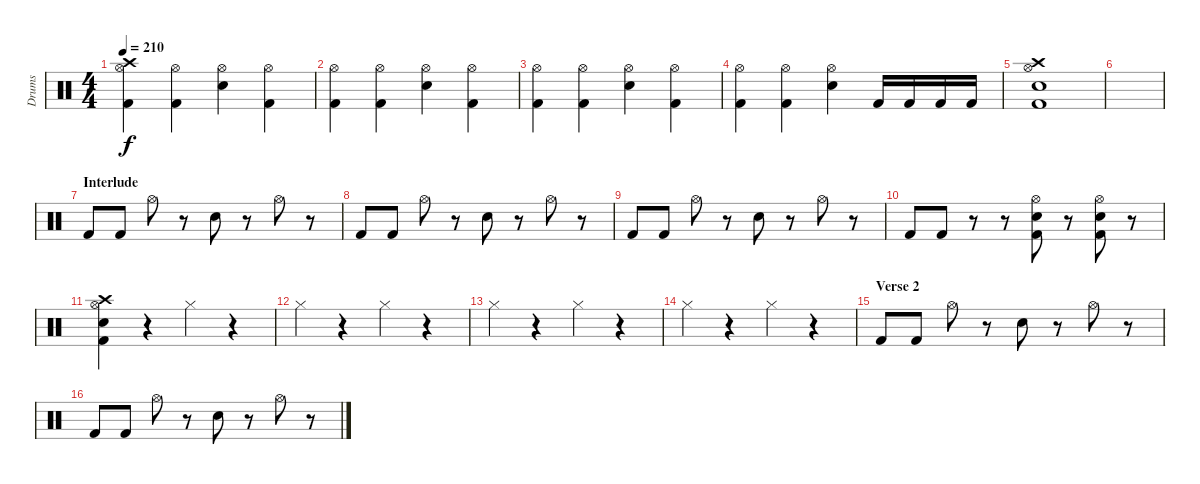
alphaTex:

\track ("Drums" "Drums") {instrument percussion}
\staff {score}
\articulation defaults
\ts (4 4)
\tempo 210
\clef neutral
\ks c
("Crash high (hit)" "Hi-Hat (open)" "Kick (hit) 2").4{dy f} ("Hi-Hat (open)" "Kick (hit) 2").4 ("Hi-Hat (open)" "Electric Snare (hit)").4 ("Hi-Hat (open)" "Kick (hit) 2").4 |
("Hi-Hat (open)" "Kick (hit) 2").4 ("Hi-Hat (open)" "Kick (hit) 2").4 ("Hi-Hat (open)" "Electric Snare (hit)").4 ("Hi-Hat (open)" "Kick (hit) 2").4 |
("Hi-Hat (open)" "Kick (hit) 2").4 ("Hi-Hat (open)" "Kick (hit) 2").4 ("Hi-Hat (open)" "Electric Snare (hit)").4 ("Hi-Hat (open)" "Kick (hit) 2").4 |
("Hi-Hat (open)" "Kick (hit) 2").4 ("Hi-Hat (open)" "Kick (hit) 2").4 ("Hi-Hat (open)" "Electric Snare (hit)").4 "Kick (hit) 2".16 "Kick (hit) 2".16 "Kick (hit) 2".16 "Kick (hit) 2".16 |
("Crash high (hit)" "Hi-Hat (open)" "Electric Snare (hit)" "Kick (hit) 2").1 |
|
\section ("" "Interlude")
"Kick (hit) 2".8 "Kick (hit) 2".8 "Hi-Hat (open)".8 r.8 "Electric Snare (hit)".8 r.8 "Hi-Hat (open)".8 r.8 |
"Kick (hit) 2".8 "Kick (hit) 2".8 "Hi-Hat (open)".8 r.8 "Electric Snare (hit)".8 r.8 "Hi-Hat (open)".8 r.8 |
"Kick (hit) 2".8 "Kick (hit) 2".8 "Hi-Hat (open)".8 r.8 "Electric Snare (hit)".8 r.8 "Hi-Hat (open)".8 r.8 |
"Kick (hit) 2".8 "Kick (hit) 2".8 r.8 r.8 ("Hi-Hat (open)" "Electric Snare (hit)" "Kick (hit) 2").8 r.8 ("Hi-Hat (open)" "Electric Snare (hit)" "Kick (hit) 2").8 r.8 |
("Crash high (hit)" "Hi-Hat (open)" "Electric Snare (hit)" "Kick (hit) 2").4 r.4 "Hi-Hat (closed)".4 r.4 |
"Hi-Hat (closed)".4 r.4 "Hi-Hat (closed)".4 r.4 |
"Hi-Hat (closed)".4 r.4 "Hi-Hat (closed)".4 r.4 |
"Hi-Hat (closed)".4 r.4 "Hi-Hat (closed)".4 r.4 |
\section ("" "Verse 2")
"Kick (hit) 2".8 "Kick (hit) 2".8 "Hi-Hat (open)".8 r.8 "Electric Snare (hit)".8 r.8 "Hi-Hat (open)".8 r.8 |
"Kick (hit) 2".8 "Kick (hit) 2".8 "Hi-Hat (open)".8 r.8 "Electric Snare (hit)".8 r.8 "Hi-Hat (open)".8 r.8
